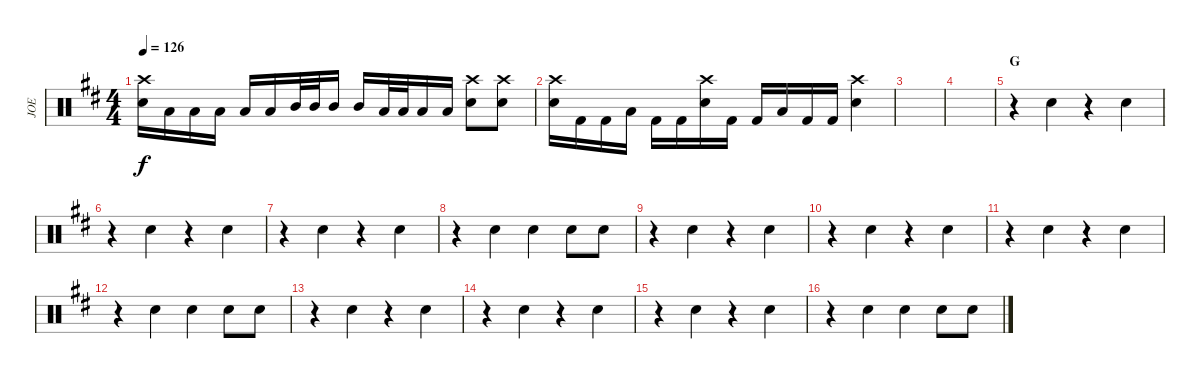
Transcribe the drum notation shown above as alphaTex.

\track ("JOE" "JOE") {instrument percussion}
\staff {score}
\articulation defaults
\ts (4 4)
\tempo 126
\clef neutral
\ks d
("Crash high (hit)" "Snare (hit) 2").16{dy f} "Low Floor Tom (hit)".16 "Low Floor Tom (hit)".16 "Low Floor Tom (hit)".16 "Low Floor Tom (hit)".16 "Low Floor Tom (hit)".16 "Mid Tom (hit)".32 "Mid Tom (hit)".32 "Mid Tom (hit)".16 "Mid Tom (hit)".16 "Low Tom (hit)".32 "Low Tom (hit)".32 "Low Tom (hit)".16 "Low Tom (hit)".16 ("Crash high (hit)" "Snare (hit) 2").8 ("Crash high (hit)" "Snare (hit) 2").8 |
("Crash high (hit)" "Snare (hit) 2").16 "Kick (hit) 2".16 "Kick (hit) 2".16 "Low Floor Tom (hit)".16 "Kick (hit) 2".16 "Kick (hit) 2".16 ("Crash high (hit)" "Snare (hit) 2").16 "Kick (hit) 2".16 "Kick (hit) 2".16 "Low Floor Tom (hit)".16 "Kick (hit) 2".16 "Kick (hit) 2".16 ("Crash high (hit)" "Snare (hit) 2").4 |
|
|
\section ("" "G")
r.4{volume 8} "Hand Clap (hit)".4 r.4 "Hand Clap (hit)".4 |
r.4 "Hand Clap (hit)".4 r.4 "Hand Clap (hit)".4 |
r.4 "Hand Clap (hit)".4 r.4 "Hand Clap (hit)".4 |
r.4 "Hand Clap (hit)".4 "Hand Clap (hit)".4 "Hand Clap (hit)".8 "Hand Clap (hit)".8 |
r.4 "Hand Clap (hit)".4 r.4 "Hand Clap (hit)".4 |
r.4 "Hand Clap (hit)".4 r.4 "Hand Clap (hit)".4 |
r.4 "Hand Clap (hit)".4 r.4 "Hand Clap (hit)".4 |
r.4 "Hand Clap (hit)".4 "Hand Clap (hit)".4 "Hand Clap (hit)".8 "Hand Clap (hit)".8 |
r.4 "Hand Clap (hit)".4 r.4 "Hand Clap (hit)".4 |
r.4{volume 7} "Hand Clap (hit)".4 r.4 "Hand Clap (hit)".4 |
r.4{volume 6} "Hand Clap (hit)".4 r.4 "Hand Clap (hit)".4 |
r.4{volume 5} "Hand Clap (hit)".4 "Hand Clap (hit)".4 "Hand Clap (hit)".8 "Hand Clap (hit)".8
